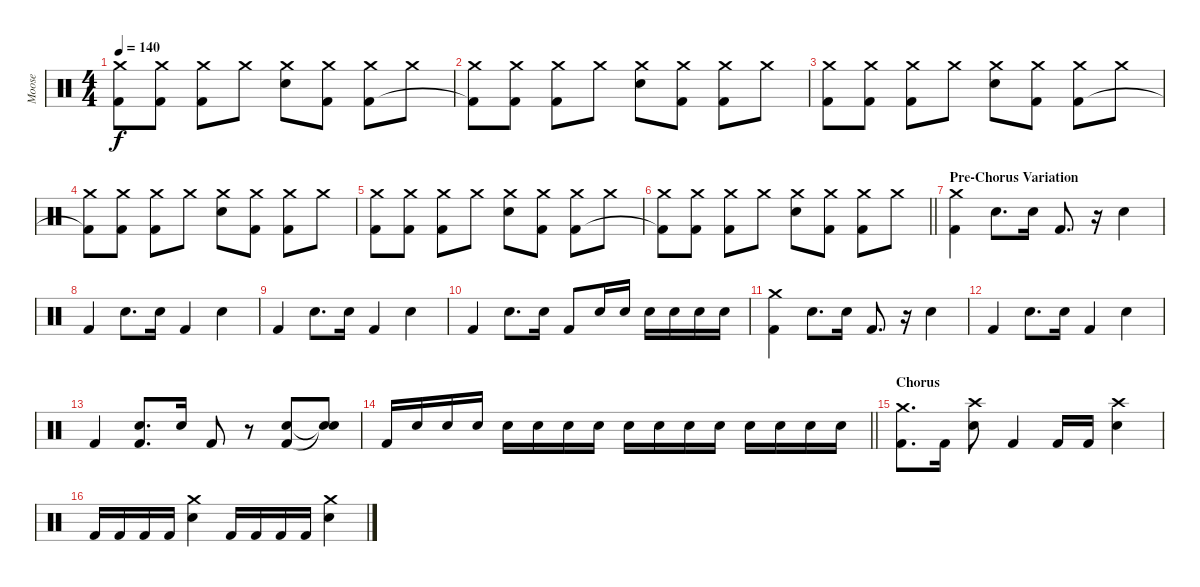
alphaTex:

\track ("Moose" "Moose") {instrument percussion}
\staff {score}
\articulation defaults
\ts (4 4)
\tempo 140
\clef neutral
\ks c
("Crash medium (hit)" "Kick (hit) 2").8{dy f} ("Crash medium (hit)" "Kick (hit) 2").8 ("Crash medium (hit)" "Kick (hit) 2").8 "Crash medium (hit)".8 ("Crash medium (hit)" "Snare (hit) 2").8 ("Crash medium (hit)" "Kick (hit) 2").8 ("Crash medium (hit)" "Kick (hit) 2").8 "Crash medium (hit)".8 |
("Crash medium (hit)" "Kick (hit) 2"{t}).8 ("Crash medium (hit)" "Kick (hit) 2").8 ("Crash medium (hit)" "Kick (hit) 2").8 "Crash medium (hit)".8 ("Crash medium (hit)" "Snare (hit) 2").8 ("Crash medium (hit)" "Kick (hit) 2").8 ("Crash medium (hit)" "Kick (hit) 2").8 "Crash medium (hit)".8 |
("Crash medium (hit)" "Kick (hit) 2").8 ("Crash medium (hit)" "Kick (hit) 2").8 ("Crash medium (hit)" "Kick (hit) 2").8 "Crash medium (hit)".8 ("Crash medium (hit)" "Snare (hit) 2").8 ("Crash medium (hit)" "Kick (hit) 2").8 ("Crash medium (hit)" "Kick (hit) 2").8 "Crash medium (hit)".8 |
("Crash medium (hit)" "Kick (hit) 2"{t}).8 ("Crash medium (hit)" "Kick (hit) 2").8 ("Crash medium (hit)" "Kick (hit) 2").8 "Crash medium (hit)".8 ("Crash medium (hit)" "Snare (hit) 2").8 ("Crash medium (hit)" "Kick (hit) 2").8 ("Crash medium (hit)" "Kick (hit) 2").8 "Crash medium (hit)".8 |
("Crash medium (hit)" "Kick (hit) 2").8 ("Crash medium (hit)" "Kick (hit) 2").8 ("Crash medium (hit)" "Kick (hit) 2").8 "Crash medium (hit)".8 ("Crash medium (hit)" "Snare (hit) 2").8 ("Crash medium (hit)" "Kick (hit) 2").8 ("Crash medium (hit)" "Kick (hit) 2").8 "Crash medium (hit)".8 |
\barLineRight lightlight
("Crash medium (hit)" "Kick (hit) 2"{t}).8 ("Crash medium (hit)" "Kick (hit) 2").8 ("Crash medium (hit)" "Kick (hit) 2").8 "Crash medium (hit)".8 ("Crash medium (hit)" "Snare (hit) 2").8 ("Crash medium (hit)" "Kick (hit) 2").8 ("Crash medium (hit)" "Kick (hit) 2").8 "Crash medium (hit)".8 |
\section ("" "Pre-Chorus Variation")
("Crash medium (hit)" "Kick (hit) 2").4 "Snare (hit) 2".8{d} "Snare (hit) 2".16 "Kick (hit) 2".8{d} r.16 "Snare (hit) 2".4 |
"Kick (hit) 2".4 "Snare (hit) 2".8{d} "Snare (hit) 2".16 "Kick (hit) 2".4 "Snare (hit) 2".4 |
"Kick (hit) 2".4 "Snare (hit) 2".8{d} "Snare (hit) 2".16 "Kick (hit) 2".4 "Snare (hit) 2".4 |
"Kick (hit) 2".4 "Snare (hit) 2".8{d} "Snare (hit) 2".16 "Kick (hit) 2".8 "Snare (hit) 2".16 "Snare (hit) 2".16 "Snare (hit) 2".16 "Snare (hit) 2".16 "Snare (hit) 2".16 "Snare (hit) 2".16 |
("Crash medium (hit)" "Kick (hit) 2").4 "Snare (hit) 2".8{d} "Snare (hit) 2".16 "Kick (hit) 2".8{d} r.16 "Snare (hit) 2".4 |
"Kick (hit) 2".4 "Snare (hit) 2".8{d} "Snare (hit) 2".16 "Kick (hit) 2".4 "Snare (hit) 2".4 |
"Kick (hit) 2".4 ("Snare (hit) 2" "Kick (hit) 2").8{d} "Snare (hit) 2".16 "Kick (hit) 2".8 r.8 ("Snare (hit) 2" "Kick (hit) 2").8 ("Snare (hit)"{t} "Snare (hit)"{t}).8 |
\barLineRight lightlight "Kick (hit) 2".16 "Snare (hit) 2".16 "Snare (hit) 2".16 "Snare (hit) 2".16 "Snare (hit) 2".16 "Snare (hit) 2".16 "Snare (hit) 2".16 "Snare (hit) 2".16 "Snare (hit) 2".16 "Snare (hit) 2".16 "Snare (hit) 2".16 "Snare (hit) 2".16 "Snare (hit) 2".16 "Snare (hit) 2".16 "Snare (hit) 2".16 "Snare (hit) 2".16
|
\section ("" "Chorus")
("Crash medium (hit)" "Kick (hit) 2").8{d} "Kick (hit) 2".16 ("Crash high (hit)" "Snare (hit) 2").8 "Kick (hit) 2".4 "Kick (hit) 2".16 "Kick (hit) 2".16 ("Crash high (hit)" "Snare (hit) 2").4 |
"Kick (hit) 2".16 "Kick (hit) 2".16 "Kick (hit) 2".16 "Kick (hit) 2".16 ("Crash medium (hit)" "Snare (hit) 2").4 "Kick (hit) 2".16 "Kick (hit) 2".16 "Kick (hit) 2".16 "Kick (hit) 2".16 ("Crash medium (hit)" "Snare (hit) 2").4
